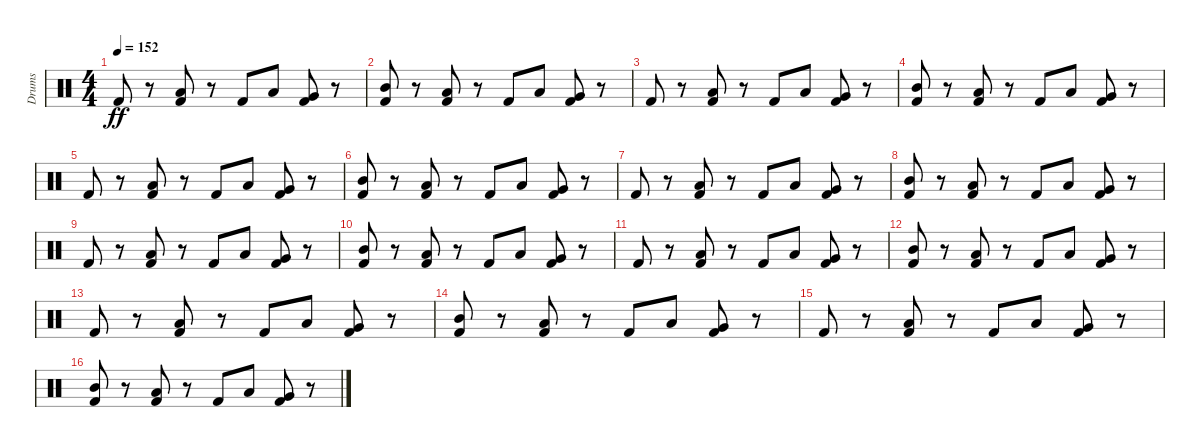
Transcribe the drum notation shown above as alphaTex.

\track ("Drums" "Drums") {instrument percussion}
\staff {score}
\articulation defaults
\ts (4 4)
\tempo 152
\clef neutral
\ks c "Kick (hit) 2".8{dy ff volume 12}
r.8 ("Low Tom (hit)" "Kick (hit) 2").8 r.8 "Kick (hit) 2".8 "Low Tom (hit)".8 ("Very Low Tom (hit)" "Kick (hit) 2").8 r.8 |
("Kick (hit) 2" "Mid Tom (hit)").8 r.8 ("Low Tom (hit)" "Kick (hit) 2").8 r.8 "Kick (hit) 2".8 "Low Tom (hit)".8 ("Very Low Tom (hit)" "Kick (hit) 2").8 r.8 |
"Kick (hit) 2".8 r.8 ("Kick (hit) 2" "Low Tom (hit)").8 r.8 "Kick (hit) 2".8 "Low Tom (hit)".8 ("Kick (hit) 2" "Very Low Tom (hit)").8 r.8 |
("Kick (hit) 2" "Mid Tom (hit)").8 r.8 ("Kick (hit) 2" "Low Tom (hit)").8 r.8 "Kick (hit) 2".8 "Low Tom (hit)".8 ("Kick (hit) 2" "Very Low Tom (hit)").8 r.8 |
"Kick (hit) 2".8 r.8 ("Kick (hit) 2" "Low Tom (hit)").8 r.8 "Kick (hit) 2".8 "Low Tom (hit)".8 ("Kick (hit) 2" "Very Low Tom (hit)").8 r.8 |
("Mid Tom (hit)" "Kick (hit) 2").8 r.8 ("Kick (hit) 2" "Low Tom (hit)").8 r.8 "Kick (hit) 2".8 "Low Tom (hit)".8 ("Kick (hit) 2" "Very Low Tom (hit)").8 r.8 |
"Kick (hit) 2".8 r.8 ("Low Tom (hit)" "Kick (hit) 2").8 r.8 "Kick (hit) 2".8 "Low Tom (hit)".8 ("Very Low Tom (hit)" "Kick (hit) 2").8 r.8 |
("Mid Tom (hit)" "Kick (hit) 2").8 r.8 ("Low Tom (hit)" "Kick (hit) 2").8 r.8 "Kick (hit) 2".8 "Low Tom (hit)".8 ("Very Low Tom (hit)" "Kick (hit) 2").8 r.8 |
"Kick (hit) 2".8 r.8 ("Kick (hit) 2" "Low Tom (hit)").8 r.8 "Kick (hit) 2".8 "Low Tom (hit)".8 ("Kick (hit) 2" "Very Low Tom (hit)").8 r.8 |
("Mid Tom (hit)" "Kick (hit) 2").8 r.8 ("Kick (hit) 2" "Low Tom (hit)").8 r.8 "Kick (hit) 2".8 "Low Tom (hit)".8 ("Kick (hit) 2" "Very Low Tom (hit)").8 r.8 |
"Kick (hit) 2".8 r.8 ("Low Tom (hit)" "Kick (hit) 2").8 r.8 "Kick (hit) 2".8 "Low Tom (hit)".8 ("Very Low Tom (hit)" "Kick (hit) 2").8 r.8 |
("Mid Tom (hit)" "Kick (hit) 2").8 r.8 ("Low Tom (hit)" "Kick (hit) 2").8 r.8 "Kick (hit) 2".8 "Low Tom (hit)".8 ("Very Low Tom (hit)" "Kick (hit) 2").8 r.8 |
"Kick (hit) 2".8 r.8 ("Low Tom (hit)" "Kick (hit) 2").8 r.8 "Kick (hit) 2".8 "Low Tom (hit)".8 ("Very Low Tom (hit)" "Kick (hit) 2").8 r.8 |
("Kick (hit) 2" "Mid Tom (hit)").8 r.8 ("Low Tom (hit)" "Kick (hit) 2").8 r.8 "Kick (hit) 2".8 "Low Tom (hit)".8 ("Very Low Tom (hit)" "Kick (hit) 2").8 r.8 |
"Kick (hit) 2".8 r.8 ("Kick (hit) 2" "Low Tom (hit)").8 r.8 "Kick (hit) 2".8 "Low Tom (hit)".8 ("Kick (hit) 2" "Very Low Tom (hit)").8 r.8 |
("Kick (hit) 2" "Mid Tom (hit)").8 r.8 ("Kick (hit) 2" "Low Tom (hit)").8 r.8 "Kick (hit) 2".8 "Low Tom (hit)".8 ("Kick (hit) 2" "Very Low Tom (hit)").8 r.8
